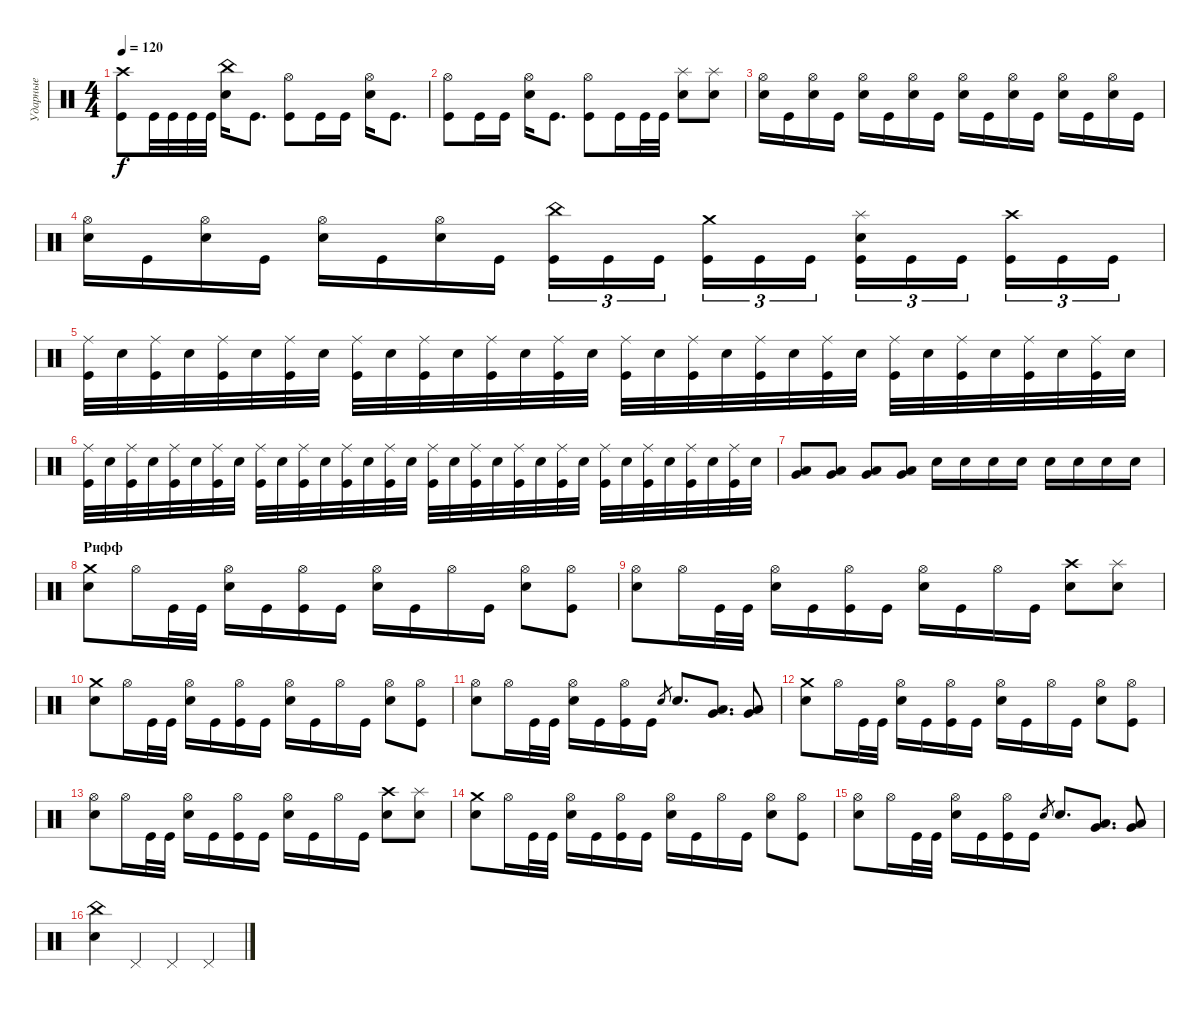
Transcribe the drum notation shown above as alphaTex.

\track ("Ударные" "Ударные") {instrument percussion}
\staff {score}
\articulation defaults
\ts (4 4)
\tempo 120
\clef neutral
\ks c
("Crash high (hit)" "Kick (hit)").8{dy f} "Kick (hit)".32 "Kick (hit)".32 "Kick (hit)".32 "Kick (hit)".32 ("China (hit)" "Electric Snare (hit)").16 "Kick (hit)".8{d} ("Hi-Hat (open)" "Kick (hit)").8 "Kick (hit)".16 "Kick (hit)".16 ("Hi-Hat (open)" "Electric Snare (hit)").16 "Kick (hit)".8{d} |
("Hi-Hat (open)" "Kick (hit)").8 "Kick (hit)".16 "Kick (hit)".16 ("Hi-Hat (open)" "Electric Snare (hit)").16 "Kick (hit)".8{d} ("Hi-Hat (open)" "Kick (hit)").8 "Kick (hit)".16 "Kick (hit)".32 "Kick (hit)".32 ("Splash (hit)" "Electric Snare (hit)").8 ("Splash (hit)" "Electric Snare (hit)").8 |
("Hi-Hat (open)" "Electric Snare (hit)").16 "Kick (hit)".16 ("Hi-Hat (open)" "Electric Snare (hit)").16 "Kick (hit)".16 ("Hi-Hat (open)" "Electric Snare (hit)").16 "Kick (hit)".16 ("Hi-Hat (open)" "Electric Snare (hit)").16 "Kick (hit)".16 ("Hi-Hat (open)" "Electric Snare (hit)").16 "Kick (hit)".16 ("Hi-Hat (open)" "Electric Snare (hit)").16 "Kick (hit)".16 ("Hi-Hat (open)" "Electric Snare (hit)").16 "Kick (hit)".16 ("Hi-Hat (open)" "Electric Snare (hit)").16 "Kick (hit)".16 |
("Hi-Hat (open)" "Electric Snare (hit)").16 "Kick (hit)".16 ("Hi-Hat (open)" "Electric Snare (hit)").16 "Kick (hit)".16 ("Hi-Hat (open)" "Electric Snare (hit)").16 "Kick (hit)".16 ("Hi-Hat (open)" "Electric Snare (hit)").16 "Kick (hit)".16 ("China (hit)" "Kick (hit)").16{tu (3 2)} "Kick (hit)".16{tu (3 2)} "Kick (hit)".16{tu (3 2) beam splitsecondary} ("Crash medium (hit)" "Kick (hit)").16{tu (3 2)} "Kick (hit)".16{tu (3 2)} "Kick (hit)".16{tu (3 2)} ("Splash (hit)" "Electric Snare (hit)" "Kick (hit)").16{tu (3 2)} "Kick (hit)".16{tu (3 2)} "Kick (hit)".16{tu (3 2) beam splitsecondary} ("Crash high (hit)" "Kick (hit)").16{tu (3 2)} "Kick (hit)".16{tu (3 2)} "Kick (hit)".16{tu (3 2)} |
("Ride (middle)" "Kick (hit)").32 "Electric Snare (hit)".32 ("Ride (middle)" "Kick (hit)").32 "Electric Snare (hit)".32 ("Ride (middle)" "Kick (hit)").32 "Electric Snare (hit)".32 ("Ride (middle)" "Kick (hit)").32 "Electric Snare (hit)".32 ("Ride (middle)" "Kick (hit)").32 "Electric Snare (hit)".32 ("Ride (middle)" "Kick (hit)").32 "Electric Snare (hit)".32 ("Ride (middle)" "Kick (hit)").32 "Electric Snare (hit)".32 ("Ride (middle)" "Kick (hit)").32 "Electric Snare (hit)".32 ("Ride (middle)" "Kick (hit)").32 "Electric Snare (hit)".32 ("Ride (middle)" "Kick (hit)").32 "Electric Snare (hit)".32 ("Ride (middle)" "Kick (hit)").32 "Electric Snare (hit)".32 ("Ride (middle)" "Kick (hit)").32 "Electric Snare (hit)".32 ("Ride (middle)" "Kick (hit)").32 "Electric Snare (hit)".32 ("Ride (middle)" "Kick (hit)").32 "Electric Snare (hit)".32 ("Ride (middle)" "Kick (hit)").32 "Electric Snare (hit)".32 ("Ride (middle)" "Kick (hit)").32 "Electric Snare (hit)".32 |
("Ride (middle)" "Kick (hit)").32 "Electric Snare (hit)".32 ("Ride (middle)" "Kick (hit)").32 "Electric Snare (hit)".32 ("Ride (middle)" "Kick (hit)").32 "Electric Snare (hit)".32 ("Ride (middle)" "Kick (hit)").32 "Electric Snare (hit)".32 ("Ride (middle)" "Kick (hit)").32 "Electric Snare (hit)".32 ("Ride (middle)" "Kick (hit)").32 "Electric Snare (hit)".32 ("Ride (middle)" "Kick (hit)").32 "Electric Snare (hit)".32 ("Ride (middle)" "Kick (hit)").32 "Electric Snare (hit)".32 ("Ride (middle)" "Kick (hit)").32 "Electric Snare (hit)".32 ("Ride (middle)" "Kick (hit)").32 "Electric Snare (hit)".32 ("Ride (middle)" "Kick (hit)").32 "Electric Snare (hit)".32 ("Ride (middle)" "Kick (hit)").32 "Electric Snare (hit)".32 ("Ride (middle)" "Kick (hit)").32 "Electric Snare (hit)".32 ("Ride (middle)" "Kick (hit)").32 "Electric Snare (hit)".32 ("Ride (middle)" "Kick (hit)").32 "Electric Snare (hit)".32 ("Ride (middle)" "Kick (hit)").32 "Electric Snare (hit)".32 |
("Very Low Tom (hit)" "Low Floor Tom (hit)").8 ("Very Low Tom (hit)" "Low Floor Tom (hit)").8 ("Very Low Tom (hit)" "Low Floor Tom (hit)").8 ("Very Low Tom (hit)" "Low Floor Tom (hit)").8 "Electric Snare (hit)".16 "Electric Snare (hit)".16 "Electric Snare (hit)".16 "Electric Snare (hit)".16 "Electric Snare (hit)".16 "Electric Snare (hit)".16 "Electric Snare (hit)".16 "Electric Snare (hit)".16 |
\section ("" "Рифф")
("Crash medium (hit)" "Electric Snare (hit)").8 "Hi-Hat (open)".16 "Kick (hit)".32 "Kick (hit)".32 ("Hi-Hat (open)" "Electric Snare (hit)").16 "Kick (hit)".16 ("Hi-Hat (open)" "Kick (hit)").16 "Kick (hit)".16 ("Hi-Hat (open)" "Electric Snare (hit)").16 "Kick (hit)".16 "Hi-Hat (open)".16 "Kick (hit)".16 ("Hi-Hat (open)" "Electric Snare (hit)").8 ("Hi-Hat (open)" "Kick (hit)").8 |
("Hi-Hat (open)" "Electric Snare (hit)").8 "Hi-Hat (open)".16 "Kick (hit)".32 "Kick (hit)".32 ("Hi-Hat (open)" "Electric Snare (hit)").16 "Kick (hit)".16 ("Hi-Hat (open)" "Kick (hit)").16 "Kick (hit)".16 ("Hi-Hat (open)" "Electric Snare (hit)").16 "Kick (hit)".16 "Hi-Hat (open)".16 "Kick (hit)".16 ("Crash high (hit)" "Electric Snare (hit)").8 ("Splash (hit)" "Electric Snare (hit)").8 |
("Crash medium (hit)" "Electric Snare (hit)").8 "Hi-Hat (open)".16 "Kick (hit)".32 "Kick (hit)".32 ("Hi-Hat (open)" "Electric Snare (hit)").16 "Kick (hit)".16 ("Hi-Hat (open)" "Kick (hit)").16 "Kick (hit)".16 ("Hi-Hat (open)" "Electric Snare (hit)").16 "Kick (hit)".16 "Hi-Hat (open)".16 "Kick (hit)".16 ("Hi-Hat (open)" "Electric Snare (hit)").8 ("Hi-Hat (open)" "Kick (hit)").8 |
("Hi-Hat (open)" "Electric Snare (hit)").8 "Hi-Hat (open)".16 "Kick (hit)".32 "Kick (hit)".32 ("Hi-Hat (open)" "Electric Snare (hit)").16 "Kick (hit)".16 ("Hi-Hat (open)" "Kick (hit)").16 "Kick (hit)".16 "Electric Snare (hit)".8{gr} "Electric Snare (hit)".8{d} ("Very Low Tom (hit)" "Low Floor Tom (hit)").8{d} ("Very Low Tom (hit)" "Low Floor Tom (hit)").8 |
("Crash medium (hit)" "Electric Snare (hit)").8 "Hi-Hat (open)".16 "Kick (hit)".32 "Kick (hit)".32 ("Hi-Hat (open)" "Electric Snare (hit)").16 "Kick (hit)".16 ("Hi-Hat (open)" "Kick (hit)").16 "Kick (hit)".16 ("Hi-Hat (open)" "Electric Snare (hit)").16 "Kick (hit)".16 "Hi-Hat (open)".16 "Kick (hit)".16 ("Hi-Hat (open)" "Electric Snare (hit)").8 ("Hi-Hat (open)" "Kick (hit)").8 |
("Hi-Hat (open)" "Electric Snare (hit)").8 "Hi-Hat (open)".16 "Kick (hit)".32 "Kick (hit)".32 ("Hi-Hat (open)" "Electric Snare (hit)").16 "Kick (hit)".16 ("Hi-Hat (open)" "Kick (hit)").16 "Kick (hit)".16 ("Hi-Hat (open)" "Electric Snare (hit)").16 "Kick (hit)".16 "Hi-Hat (open)".16 "Kick (hit)".16 ("Crash high (hit)" "Electric Snare (hit)").8 ("Splash (hit)" "Electric Snare (hit)").8 |
("Crash medium (hit)" "Electric Snare (hit)").8 "Hi-Hat (open)".16 "Kick (hit)".32 "Kick (hit)".32 ("Hi-Hat (open)" "Electric Snare (hit)").16 "Kick (hit)".16 ("Hi-Hat (open)" "Kick (hit)").16 "Kick (hit)".16 ("Hi-Hat (open)" "Electric Snare (hit)").16 "Kick (hit)".16 "Hi-Hat (open)".16 "Kick (hit)".16 ("Hi-Hat (open)" "Electric Snare (hit)").8 ("Hi-Hat (open)" "Kick (hit)").8 |
("Hi-Hat (open)" "Electric Snare (hit)").8 "Hi-Hat (open)".16 "Kick (hit)".32 "Kick (hit)".32 ("Hi-Hat (open)" "Electric Snare (hit)").16 "Kick (hit)".16 ("Hi-Hat (open)" "Kick (hit)").16 "Kick (hit)".16 "Electric Snare (hit)".8{gr} "Electric Snare (hit)".8{d} ("Very Low Tom (hit)" "Low Floor Tom (hit)").8{d} ("Very Low Tom (hit)" "Low Floor Tom (hit)").8 |
("China (hit)" "Electric Snare (hit)").4 "Pedal Hi-Hat (hit)".4 "Pedal Hi-Hat (hit)".4 "Pedal Hi-Hat (hit)".4
